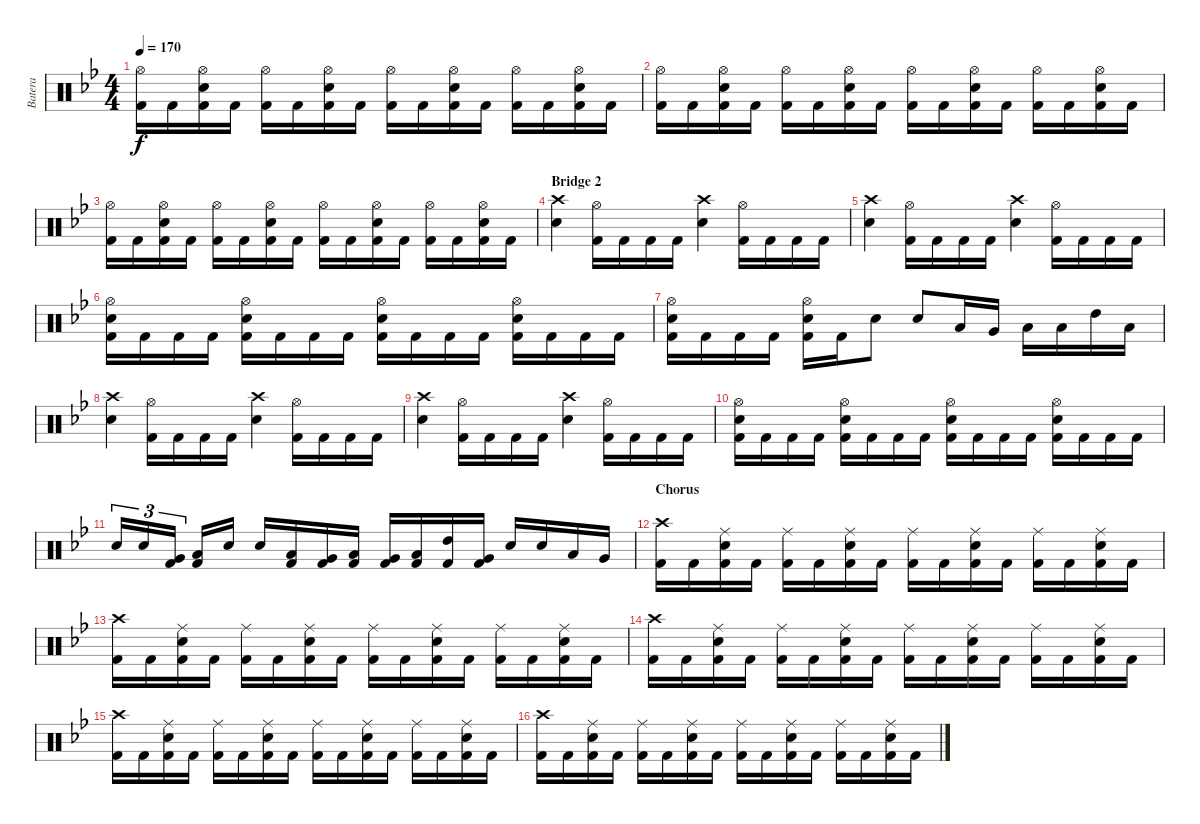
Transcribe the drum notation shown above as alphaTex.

\track ("Batera" "Batera") {instrument percussion}
\staff {score}
\articulation defaults
\ts (4 4)
\tempo 170
\clef neutral
\ks bb
("Hi-Hat (open)" "Kick (hit) 2").16{dy f} "Kick (hit) 2".16 ("Hi-Hat (open)" "Electric Snare (hit)" "Kick (hit) 2").16 "Kick (hit) 2".16 ("Hi-Hat (open)" "Kick (hit) 2").16 "Kick (hit) 2".16 ("Hi-Hat (open)" "Electric Snare (hit)" "Kick (hit) 2").16 "Kick (hit) 2".16 ("Hi-Hat (open)" "Kick (hit) 2").16 "Kick (hit) 2".16 ("Hi-Hat (open)" "Electric Snare (hit)" "Kick (hit) 2").16 "Kick (hit) 2".16 ("Hi-Hat (open)" "Kick (hit) 2").16 "Kick (hit) 2".16 ("Hi-Hat (open)" "Electric Snare (hit)" "Kick (hit) 2").16 "Kick (hit) 2".16 |
("Hi-Hat (open)" "Kick (hit) 2").16 "Kick (hit) 2".16 ("Hi-Hat (open)" "Electric Snare (hit)" "Kick (hit) 2").16 "Kick (hit) 2".16 ("Hi-Hat (open)" "Kick (hit) 2").16 "Kick (hit) 2".16 ("Hi-Hat (open)" "Electric Snare (hit)" "Kick (hit) 2").16 "Kick (hit) 2".16 ("Hi-Hat (open)" "Kick (hit) 2").16 "Kick (hit) 2".16 ("Hi-Hat (open)" "Electric Snare (hit)" "Kick (hit) 2").16 "Kick (hit) 2".16 ("Hi-Hat (open)" "Kick (hit) 2").16 "Kick (hit) 2".16 ("Hi-Hat (open)" "Electric Snare (hit)" "Kick (hit) 2").16 "Kick (hit) 2".16 |
("Hi-Hat (open)" "Kick (hit) 2").16 "Kick (hit) 2".16 ("Hi-Hat (open)" "Electric Snare (hit)" "Kick (hit) 2").16 "Kick (hit) 2".16 ("Hi-Hat (open)" "Kick (hit) 2").16 "Kick (hit) 2".16 ("Hi-Hat (open)" "Electric Snare (hit)" "Kick (hit) 2").16 "Kick (hit) 2".16 ("Hi-Hat (open)" "Kick (hit) 2").16 "Kick (hit) 2".16 ("Hi-Hat (open)" "Electric Snare (hit)" "Kick (hit) 2").16 "Kick (hit) 2".16 ("Hi-Hat (open)" "Kick (hit) 2").16 "Kick (hit) 2".16 ("Hi-Hat (open)" "Electric Snare (hit)" "Kick (hit) 2").16 "Kick (hit) 2".16 |
\section ("" "Bridge 2")
("Crash high (hit)" "Electric Snare (hit)").4 ("Hi-Hat (open)" "Kick (hit) 2").16 "Kick (hit) 2".16 "Kick (hit) 2".16 "Kick (hit) 2".16 ("Crash high (hit)" "Electric Snare (hit)").4 ("Hi-Hat (open)" "Kick (hit) 2").16 "Kick (hit) 2".16 "Kick (hit) 2".16 "Kick (hit) 2".16 |
("Crash high (hit)" "Electric Snare (hit)").4 ("Hi-Hat (open)" "Kick (hit) 2").16 "Kick (hit) 2".16 "Kick (hit) 2".16 "Kick (hit) 2".16 ("Crash high (hit)" "Electric Snare (hit)").4 ("Hi-Hat (open)" "Kick (hit) 2").16 "Kick (hit) 2".16 "Kick (hit) 2".16 "Kick (hit) 2".16 |
("Hi-Hat (open)" "Electric Snare (hit)" "Kick (hit) 2").16 "Kick (hit) 2".16 "Kick (hit) 2".16 "Kick (hit) 2".16 ("Hi-Hat (open)" "Electric Snare (hit)" "Kick (hit) 2").16 "Kick (hit) 2".16 "Kick (hit) 2".16 "Kick (hit) 2".16 ("Hi-Hat (open)" "Electric Snare (hit)" "Kick (hit) 2").16 "Kick (hit) 2".16 "Kick (hit) 2".16 "Kick (hit) 2".16 ("Hi-Hat (open)" "Electric Snare (hit)" "Kick (hit) 2").16 "Kick (hit) 2".16 "Kick (hit) 2".16 "Kick (hit) 2".16 |
("Hi-Hat (open)" "Electric Snare (hit)" "Kick (hit) 2").16 "Kick (hit) 2".16 "Kick (hit) 2".16 "Kick (hit) 2".16 ("Hi-Hat (open)" "Electric Snare (hit)" "Kick (hit) 2").16 "Kick (hit) 2".16 "Electric Snare (hit)".8 "Electric Snare (hit)".8 "Low Floor Tom (hit)".16 "Very Low Tom (hit)".16 "Low Floor Tom (hit)".16 "Low Tom (hit)".16 "High Tom (hit)".16 "Low Floor Tom (hit)".16 |
("Crash high (hit)" "Electric Snare (hit)").4 ("Hi-Hat (open)" "Kick (hit) 2").16 "Kick (hit) 2".16 "Kick (hit) 2".16 "Kick (hit) 2".16 ("Crash high (hit)" "Electric Snare (hit)").4 ("Hi-Hat (open)" "Kick (hit) 2").16 "Kick (hit) 2".16 "Kick (hit) 2".16 "Kick (hit) 2".16 |
("Crash high (hit)" "Electric Snare (hit)").4 ("Hi-Hat (open)" "Kick (hit) 2").16 "Kick (hit) 2".16 "Kick (hit) 2".16 "Kick (hit) 2".16 ("Crash high (hit)" "Electric Snare (hit)").4 ("Hi-Hat (open)" "Kick (hit) 2").16 "Kick (hit) 2".16 "Kick (hit) 2".16 "Kick (hit) 2".16 |
("Hi-Hat (open)" "Electric Snare (hit)" "Kick (hit) 2").16 "Kick (hit) 2".16 "Kick (hit) 2".16 "Kick (hit) 2".16 ("Hi-Hat (open)" "Electric Snare (hit)" "Kick (hit) 2").16 "Kick (hit) 2".16 "Kick (hit) 2".16 "Kick (hit) 2".16 ("Hi-Hat (open)" "Electric Snare (hit)" "Kick (hit) 2").16 "Kick (hit) 2".16 "Kick (hit) 2".16 "Kick (hit) 2".16 ("Hi-Hat (open)" "Electric Snare (hit)" "Kick (hit) 2").16 "Kick (hit) 2".16 "Kick (hit) 2".16 "Kick (hit) 2".16 |
"Electric Snare (hit)".16{tu (3 2)} "Electric Snare (hit)".16{tu (3 2)} ("Very Low Tom (hit)" "Kick (hit) 2").16{tu (3 2)} ("Low Floor Tom (hit)" "Kick (hit) 2").16 "Electric Snare (hit)".16 "Electric Snare (hit)".16 ("Low Floor Tom (hit)" "Kick (hit) 2").16 ("Very Low Tom (hit)" "Kick (hit) 2").16 ("Low Floor Tom (hit)" "Kick (hit) 2").16 ("Very Low Tom (hit)" "Kick (hit) 2").16 ("Low Tom (hit)" "Kick (hit) 2").16 ("High Tom (hit)" "Kick (hit) 2").16 ("Very Low Tom (hit)" "Kick (hit) 2").16 "Electric Snare (hit)".16 "Electric Snare (hit)".16 "Low Floor Tom (hit)".16 "Very Low Tom (hit)".16 |
\section ("" "Chorus")
("Crash high (hit)" "Kick (hit) 2").16 "Kick (hit) 2".16 ("Ride (middle)" "Electric Snare (hit)" "Kick (hit) 2").16 "Kick (hit) 2".16 ("Ride (middle)" "Kick (hit) 2").16 "Kick (hit) 2".16 ("Ride (middle)" "Electric Snare (hit)" "Kick (hit) 2").16 "Kick (hit) 2".16 ("Ride (middle)" "Kick (hit) 2").16 "Kick (hit) 2".16 ("Ride (middle)" "Electric Snare (hit)" "Kick (hit) 2").16 "Kick (hit) 2".16 ("Ride (middle)" "Kick (hit) 2").16 "Kick (hit) 2".16 ("Ride (middle)" "Electric Snare (hit)" "Kick (hit) 2").16 "Kick (hit) 2".16 |
("Crash high (hit)" "Kick (hit) 2").16 "Kick (hit) 2".16 ("Ride (middle)" "Electric Snare (hit)" "Kick (hit) 2").16 "Kick (hit) 2".16 ("Ride (middle)" "Kick (hit) 2").16 "Kick (hit) 2".16 ("Ride (middle)" "Electric Snare (hit)" "Kick (hit) 2").16 "Kick (hit) 2".16 ("Ride (middle)" "Kick (hit) 2").16 "Kick (hit) 2".16 ("Ride (middle)" "Electric Snare (hit)" "Kick (hit) 2").16 "Kick (hit) 2".16 ("Ride (middle)" "Kick (hit) 2").16 "Kick (hit) 2".16 ("Ride (middle)" "Electric Snare (hit)" "Kick (hit) 2").16 "Kick (hit) 2".16 |
("Crash high (hit)" "Kick (hit) 2").16 "Kick (hit) 2".16 ("Ride (middle)" "Electric Snare (hit)" "Kick (hit) 2").16 "Kick (hit) 2".16 ("Ride (middle)" "Kick (hit) 2").16 "Kick (hit) 2".16 ("Ride (middle)" "Electric Snare (hit)" "Kick (hit) 2").16 "Kick (hit) 2".16 ("Ride (middle)" "Kick (hit) 2").16 "Kick (hit) 2".16 ("Ride (middle)" "Electric Snare (hit)" "Kick (hit) 2").16 "Kick (hit) 2".16 ("Ride (middle)" "Kick (hit) 2").16 "Kick (hit) 2".16 ("Ride (middle)" "Electric Snare (hit)" "Kick (hit) 2").16 "Kick (hit) 2".16 |
("Crash high (hit)" "Kick (hit) 2").16 "Kick (hit) 2".16 ("Ride (middle)" "Electric Snare (hit)" "Kick (hit) 2").16 "Kick (hit) 2".16 ("Ride (middle)" "Kick (hit) 2").16 "Kick (hit) 2".16 ("Ride (middle)" "Electric Snare (hit)" "Kick (hit) 2").16 "Kick (hit) 2".16 ("Ride (middle)" "Kick (hit) 2").16 "Kick (hit) 2".16 ("Ride (middle)" "Electric Snare (hit)" "Kick (hit) 2").16 "Kick (hit) 2".16 ("Ride (middle)" "Kick (hit) 2").16 "Kick (hit) 2".16 ("Ride (middle)" "Electric Snare (hit)" "Kick (hit) 2").16 "Kick (hit) 2".16 |
("Crash high (hit)" "Kick (hit) 2").16 "Kick (hit) 2".16 ("Ride (middle)" "Electric Snare (hit)" "Kick (hit) 2").16 "Kick (hit) 2".16 ("Ride (middle)" "Kick (hit) 2").16 "Kick (hit) 2".16 ("Ride (middle)" "Electric Snare (hit)" "Kick (hit) 2").16 "Kick (hit) 2".16 ("Ride (middle)" "Kick (hit) 2").16 "Kick (hit) 2".16 ("Ride (middle)" "Electric Snare (hit)" "Kick (hit) 2").16 "Kick (hit) 2".16 ("Ride (middle)" "Kick (hit) 2").16 "Kick (hit) 2".16 ("Ride (middle)" "Electric Snare (hit)" "Kick (hit) 2").16 "Kick (hit) 2".16
